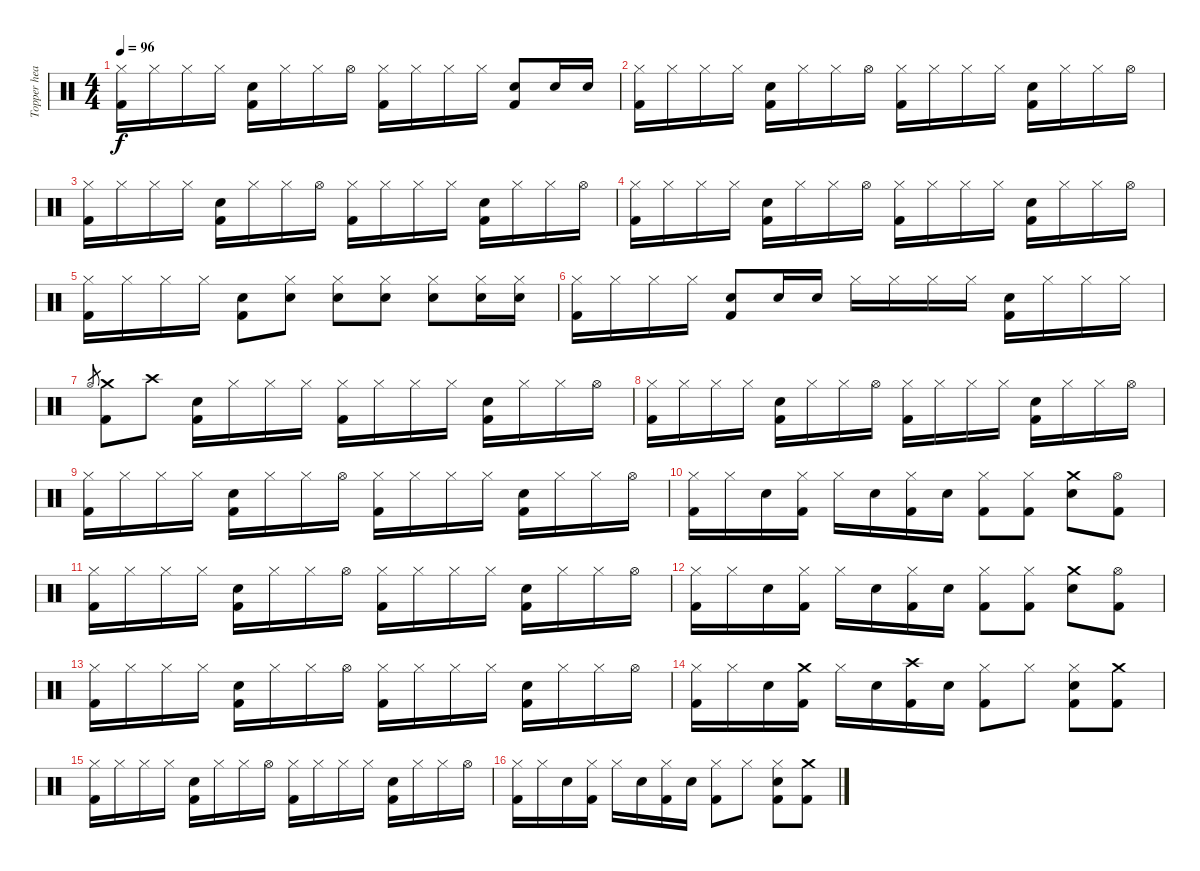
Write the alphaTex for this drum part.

\track ("Topper headon (drum)" "Topper hea") {instrument percussion}
\staff {score}
\articulation defaults
\ts (4 4)
\tempo 96
\clef neutral
\ks c
("Hi-Hat (closed)" "Kick (hit) 2").16{dy f} "Hi-Hat (closed)".16 "Hi-Hat (closed)".16 "Hi-Hat (closed)".16 ("Electric Snare (hit)" "Kick (hit) 2").16 "Hi-Hat (closed)".16 "Hi-Hat (closed)".16 "Hi-Hat (open)".16 ("Hi-Hat (closed)" "Kick (hit) 2").16 "Hi-Hat (closed)".16 "Hi-Hat (closed)".16 "Hi-Hat (closed)".16 ("Electric Snare (hit)" "Kick (hit) 2").8 "Electric Snare (hit)".16 "Electric Snare (hit)".16 |
("Hi-Hat (closed)" "Kick (hit) 2").16 "Hi-Hat (closed)".16 "Hi-Hat (closed)".16 "Hi-Hat (closed)".16 ("Electric Snare (hit)" "Kick (hit) 2").16 "Hi-Hat (closed)".16 "Hi-Hat (closed)".16 "Hi-Hat (open)".16 ("Hi-Hat (closed)" "Kick (hit) 2").16 "Hi-Hat (closed)".16 "Hi-Hat (closed)".16 "Hi-Hat (closed)".16 ("Electric Snare (hit)" "Kick (hit) 2").16 "Hi-Hat (closed)".16 "Hi-Hat (closed)".16 "Hi-Hat (open)".16 |
("Hi-Hat (closed)" "Kick (hit) 2").16 "Hi-Hat (closed)".16 "Hi-Hat (closed)".16 "Hi-Hat (closed)".16 ("Electric Snare (hit)" "Kick (hit) 2").16 "Hi-Hat (closed)".16 "Hi-Hat (closed)".16 "Hi-Hat (open)".16 ("Hi-Hat (closed)" "Kick (hit) 2").16 "Hi-Hat (closed)".16 "Hi-Hat (closed)".16 "Hi-Hat (closed)".16 ("Electric Snare (hit)" "Kick (hit) 2").16 "Hi-Hat (closed)".16 "Hi-Hat (closed)".16 "Hi-Hat (open)".16 |
("Hi-Hat (closed)" "Kick (hit) 2").16 "Hi-Hat (closed)".16 "Hi-Hat (closed)".16 "Hi-Hat (closed)".16 ("Electric Snare (hit)" "Kick (hit) 2").16 "Hi-Hat (closed)".16 "Hi-Hat (closed)".16 "Hi-Hat (open)".16 ("Hi-Hat (closed)" "Kick (hit) 2").16 "Hi-Hat (closed)".16 "Hi-Hat (closed)".16 "Hi-Hat (closed)".16 ("Electric Snare (hit)" "Kick (hit) 2").16 "Hi-Hat (closed)".16 "Hi-Hat (closed)".16 "Hi-Hat (open)".16 |
("Hi-Hat (closed)" "Kick (hit) 2").16 "Hi-Hat (closed)".16 "Hi-Hat (closed)".16 "Hi-Hat (closed)".16 ("Electric Snare (hit)" "Kick (hit) 2").8 ("Hi-Hat (closed)" "Electric Snare (hit)").8 ("Hi-Hat (closed)" "Electric Snare (hit)").8 ("Hi-Hat (closed)" "Electric Snare (hit)").8 ("Hi-Hat (closed)" "Electric Snare (hit)").8 ("Hi-Hat (closed)" "Electric Snare (hit)").16 ("Hi-Hat (closed)" "Electric Snare (hit)").16 |
("Hi-Hat (closed)" "Kick (hit) 2").16 "Hi-Hat (closed)".16 "Hi-Hat (closed)".16 "Hi-Hat (closed)".16 ("Electric Snare (hit)" "Kick (hit) 2").8 "Electric Snare (hit)".16 "Electric Snare (hit)".16 "Hi-Hat (closed)".16 "Hi-Hat (closed)".16 "Hi-Hat (closed)".16 "Hi-Hat (closed)".16 ("Electric Snare (hit)" "Kick (hit) 2").16 "Hi-Hat (closed)".16 "Hi-Hat (closed)".16 "Hi-Hat (closed)".16 |
"Hi-Hat (open)".8{gr} ("Crash medium (hit)" "Kick (hit) 2").8 "Crash high (hit)".8 ("Electric Snare (hit)" "Kick (hit) 2").16 "Hi-Hat (closed)".16 "Hi-Hat (closed)".16 "Hi-Hat (closed)".16 ("Hi-Hat (closed)" "Kick (hit) 2").16 "Hi-Hat (closed)".16 "Hi-Hat (closed)".16 "Hi-Hat (closed)".16 ("Electric Snare (hit)" "Kick (hit) 2").16 "Hi-Hat (closed)".16 "Hi-Hat (closed)".16 "Hi-Hat (open)".16 |
("Hi-Hat (closed)" "Kick (hit) 2").16 "Hi-Hat (closed)".16 "Hi-Hat (closed)".16 "Hi-Hat (closed)".16 ("Electric Snare (hit)" "Kick (hit) 2").16 "Hi-Hat (closed)".16 "Hi-Hat (closed)".16 "Hi-Hat (open)".16 ("Hi-Hat (closed)" "Kick (hit) 2").16 "Hi-Hat (closed)".16 "Hi-Hat (closed)".16 "Hi-Hat (closed)".16 ("Electric Snare (hit)" "Kick (hit) 2").16 "Hi-Hat (closed)".16 "Hi-Hat (closed)".16 "Hi-Hat (open)".16 |
("Hi-Hat (closed)" "Kick (hit) 2").16 "Hi-Hat (closed)".16 "Hi-Hat (closed)".16 "Hi-Hat (closed)".16 ("Electric Snare (hit)" "Kick (hit) 2").16 "Hi-Hat (closed)".16 "Hi-Hat (closed)".16 "Hi-Hat (open)".16 ("Hi-Hat (closed)" "Kick (hit) 2").16 "Hi-Hat (closed)".16 "Hi-Hat (closed)".16 "Hi-Hat (closed)".16 ("Electric Snare (hit)" "Kick (hit) 2").16 "Hi-Hat (closed)".16 "Hi-Hat (closed)".16 "Hi-Hat (open)".16 |
("Hi-Hat (closed)" "Kick (hit) 2").16 "Hi-Hat (closed)".16 "Electric Snare (hit)".16 ("Hi-Hat (closed)" "Kick (hit) 2").16 "Hi-Hat (closed)".16 "Electric Snare (hit)".16 ("Hi-Hat (closed)" "Kick (hit) 2").16 "Electric Snare (hit)".16 ("Hi-Hat (closed)" "Kick (hit) 2").8 ("Hi-Hat (closed)" "Kick (hit) 2").8 ("Crash medium (hit)" "Electric Snare (hit)").8 ("Hi-Hat (open)" "Kick (hit) 2").8 |
("Hi-Hat (closed)" "Kick (hit) 2").16 "Hi-Hat (closed)".16 "Hi-Hat (closed)".16 "Hi-Hat (closed)".16 ("Electric Snare (hit)" "Kick (hit) 2").16 "Hi-Hat (closed)".16 "Hi-Hat (closed)".16 "Hi-Hat (open)".16 ("Hi-Hat (closed)" "Kick (hit) 2").16 "Hi-Hat (closed)".16 "Hi-Hat (closed)".16 "Hi-Hat (closed)".16 ("Electric Snare (hit)" "Kick (hit) 2").16 "Hi-Hat (closed)".16 "Hi-Hat (closed)".16 "Hi-Hat (open)".16 |
("Hi-Hat (closed)" "Kick (hit) 2").16 "Hi-Hat (closed)".16 "Electric Snare (hit)".16 ("Hi-Hat (closed)" "Kick (hit) 2").16 "Hi-Hat (closed)".16 "Electric Snare (hit)".16 ("Hi-Hat (closed)" "Kick (hit) 2").16 "Electric Snare (hit)".16 ("Hi-Hat (closed)" "Kick (hit) 2").8 ("Hi-Hat (closed)" "Kick (hit) 2").8 ("Crash medium (hit)" "Electric Snare (hit)").8 ("Hi-Hat (open)" "Kick (hit) 2").8 |
("Hi-Hat (closed)" "Kick (hit) 2").16 "Hi-Hat (closed)".16 "Hi-Hat (closed)".16 "Hi-Hat (closed)".16 ("Electric Snare (hit)" "Kick (hit) 2").16 "Hi-Hat (closed)".16 "Hi-Hat (closed)".16 "Hi-Hat (open)".16 ("Hi-Hat (closed)" "Kick (hit) 2").16 "Hi-Hat (closed)".16 "Hi-Hat (closed)".16 "Hi-Hat (closed)".16 ("Electric Snare (hit)" "Kick (hit) 2").16 "Hi-Hat (closed)".16 "Hi-Hat (closed)".16 "Hi-Hat (open)".16 |
("Hi-Hat (closed)" "Kick (hit) 2").16 "Hi-Hat (closed)".16 "Electric Snare (hit)".16 ("Crash medium (hit)" "Kick (hit) 2").16 "Hi-Hat (closed)".16 "Electric Snare (hit)".16 ("Crash high (hit)" "Kick (hit) 2").16 "Electric Snare (hit)".16 ("Hi-Hat (closed)" "Kick (hit) 2").8 "Hi-Hat (closed)".8 ("Hi-Hat (closed)" "Electric Snare (hit)" "Kick (hit) 2").8 ("Crash medium (hit)" "Kick (hit) 2").8 |
("Hi-Hat (closed)" "Kick (hit) 2").16 "Hi-Hat (closed)".16 "Hi-Hat (closed)".16 "Hi-Hat (closed)".16 ("Electric Snare (hit)" "Kick (hit) 2").16 "Hi-Hat (closed)".16 "Hi-Hat (closed)".16 "Hi-Hat (open)".16 ("Hi-Hat (closed)" "Kick (hit) 2").16 "Hi-Hat (closed)".16 "Hi-Hat (closed)".16 "Hi-Hat (closed)".16 ("Electric Snare (hit)" "Kick (hit) 2").16 "Hi-Hat (closed)".16 "Hi-Hat (closed)".16 "Hi-Hat (open)".16 |
("Hi-Hat (closed)" "Kick (hit) 2").16 "Hi-Hat (closed)".16 "Electric Snare (hit)".16 ("Hi-Hat (closed)" "Kick (hit) 2").16 "Hi-Hat (closed)".16 "Electric Snare (hit)".16 ("Hi-Hat (closed)" "Kick (hit) 2").16 "Electric Snare (hit)".16 ("Hi-Hat (closed)" "Kick (hit) 2").8 "Hi-Hat (closed)".8 ("Hi-Hat (closed)" "Electric Snare (hit)" "Kick (hit) 2").8 ("Crash medium (hit)" "Kick (hit) 2").8
